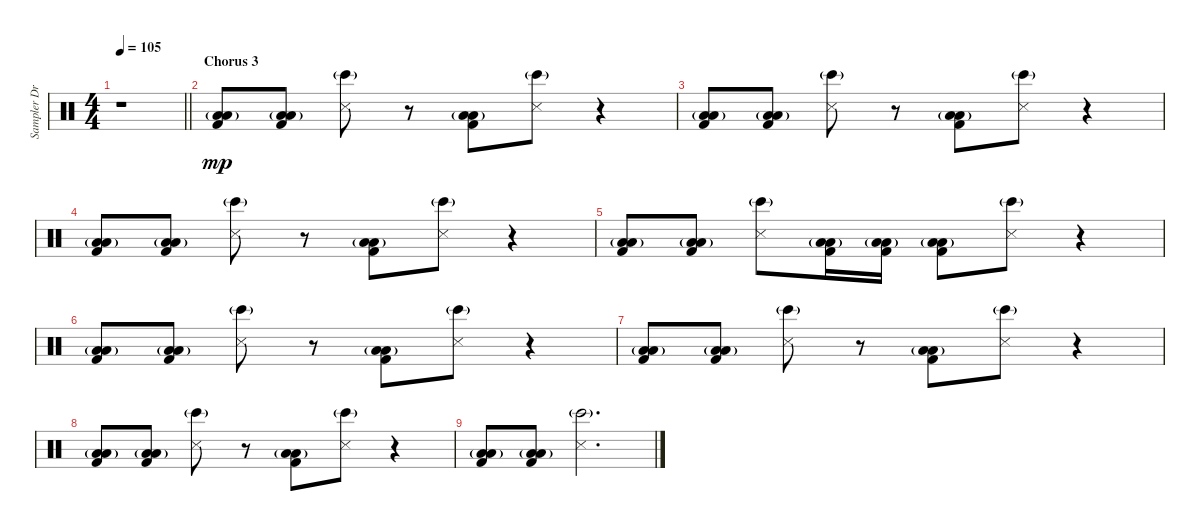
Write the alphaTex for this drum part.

\track ("Sampler Drums" "Sampler Dr") {instrument percussion}
\staff {score}
\articulation defaults
\ts (4 4)
\tempo 105
\clef neutral
\barLineRight lightlight
\ks c
r.1{dy mp} |
\section ("" "Chorus 3")
("Low Tom (hit)"{g} "Low Floor Tom (hit)" "Kick (hit) 2").8 ("Low Tom (hit)"{g} "Low Floor Tom (hit)" "Kick (hit) 2").8 ("Snare (side stick) 3" "Bongo High (hit)"{g}).8 r.8 ("Low Tom (hit)"{g} "Low Floor Tom (hit)" "Kick (hit) 2").8 ("Snare (side stick) 3" "Bongo High (hit)"{g}).8 r.4 |
("Low Tom (hit)"{g} "Low Floor Tom (hit)" "Kick (hit) 2").8 ("Low Tom (hit)"{g} "Low Floor Tom (hit)" "Kick (hit) 2").8 ("Snare (side stick) 3" "Bongo High (hit)"{g}).8 r.8 ("Low Tom (hit)"{g} "Low Floor Tom (hit)" "Kick (hit) 2").8 ("Snare (side stick) 3" "Bongo High (hit)"{g}).8 r.4 |
("Low Tom (hit)"{g} "Low Floor Tom (hit)" "Kick (hit) 2").8 ("Low Tom (hit)"{g} "Low Floor Tom (hit)" "Kick (hit) 2").8 ("Snare (side stick) 3" "Bongo High (hit)"{g}).8 r.8 ("Low Tom (hit)"{g} "Low Floor Tom (hit)" "Kick (hit) 2").8 ("Snare (side stick) 3" "Bongo High (hit)"{g}).8 r.4 |
("Low Tom (hit)"{g} "Low Floor Tom (hit)" "Kick (hit) 2").8 ("Low Tom (hit)"{g} "Low Floor Tom (hit)" "Kick (hit) 2").8 ("Snare (side stick) 3" "Bongo High (hit)"{g}).8 ("Low Tom (hit)"{g} "Low Floor Tom (hit)" "Kick (hit) 2").16 ("Low Tom (hit)"{g} "Low Floor Tom (hit)" "Kick (hit) 2").16 ("Low Tom (hit)"{g} "Low Floor Tom (hit)" "Kick (hit) 2").8 ("Snare (side stick) 3" "Bongo High (hit)"{g}).8 r.4 |
("Low Tom (hit)"{g} "Low Floor Tom (hit)" "Kick (hit) 2").8 ("Low Tom (hit)"{g} "Low Floor Tom (hit)" "Kick (hit) 2").8 ("Snare (side stick) 3" "Bongo High (hit)"{g}).8 r.8 ("Low Tom (hit)"{g} "Low Floor Tom (hit)" "Kick (hit) 2").8 ("Snare (side stick) 3" "Bongo High (hit)"{g}).8 r.4 |
("Low Tom (hit)"{g} "Low Floor Tom (hit)" "Kick (hit) 2").8 ("Low Tom (hit)"{g} "Low Floor Tom (hit)" "Kick (hit) 2").8 ("Snare (side stick) 3" "Bongo High (hit)"{g}).8 r.8 ("Low Tom (hit)"{g} "Low Floor Tom (hit)" "Kick (hit) 2").8 ("Snare (side stick) 3" "Bongo High (hit)"{g}).8 r.4 |
("Low Tom (hit)"{g} "Low Floor Tom (hit)" "Kick (hit) 2").8 ("Low Tom (hit)"{g} "Low Floor Tom (hit)" "Kick (hit) 2").8 ("Snare (side stick) 3" "Bongo High (hit)"{g}).8 r.8 ("Low Tom (hit)"{g} "Low Floor Tom (hit)" "Kick (hit) 2").8 ("Snare (side stick) 3" "Bongo High (hit)"{g}).8 r.4 |
("Low Tom (hit)"{g} "Low Floor Tom (hit)" "Kick (hit) 2").8 ("Low Tom (hit)"{g} "Low Floor Tom (hit)" "Kick (hit) 2").8 ("Snare (side stick) 3" "Bongo High (hit)"{g}).2{d}
